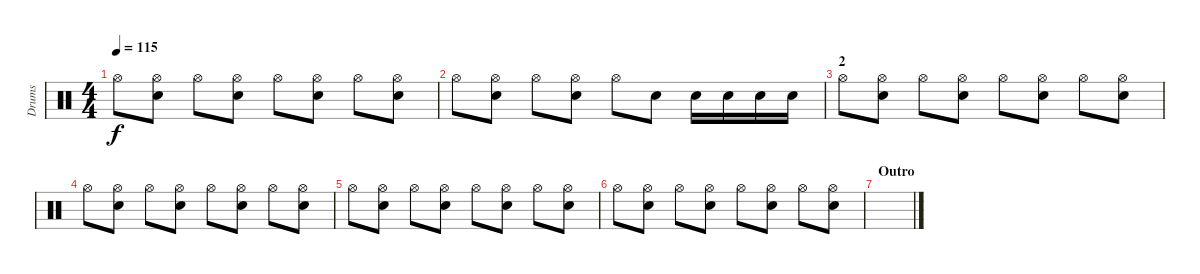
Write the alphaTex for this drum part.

\track ("Drums" "Drums") {instrument percussion}
\staff {score}
\articulation defaults
\ts (4 4)
\tempo 115
\clef neutral
\ks c "Hi-Hat (open)".8{dy f}
("Hi-Hat (open)" "Snare (hit) 2").8 "Hi-Hat (open)".8 ("Hi-Hat (open)" "Snare (hit) 2").8 "Hi-Hat (open)".8 ("Hi-Hat (open)" "Snare (hit) 2").8 "Hi-Hat (open)".8 ("Hi-Hat (open)" "Snare (hit) 2").8 |
"Hi-Hat (open)".8 ("Hi-Hat (open)" "Snare (hit) 2").8 "Hi-Hat (open)".8 ("Hi-Hat (open)" "Snare (hit) 2").8 "Hi-Hat (open)".8 "Snare (hit) 2".8 "Snare (hit) 2".16 "Snare (hit) 2".16 "Snare (hit) 2".16 "Snare (hit) 2".16 |
\section ("" "2")
"Hi-Hat (open)".8 ("Hi-Hat (open)" "Snare (hit) 2").8 "Hi-Hat (open)".8 ("Hi-Hat (open)" "Snare (hit) 2").8 "Hi-Hat (open)".8 ("Hi-Hat (open)" "Snare (hit) 2").8 "Hi-Hat (open)".8 ("Hi-Hat (open)" "Snare (hit) 2").8 |
"Hi-Hat (open)".8 ("Hi-Hat (open)" "Snare (hit) 2").8 "Hi-Hat (open)".8 ("Hi-Hat (open)" "Snare (hit) 2").8 "Hi-Hat (open)".8 ("Hi-Hat (open)" "Snare (hit) 2").8 "Hi-Hat (open)".8 ("Hi-Hat (open)" "Snare (hit) 2").8 |
"Hi-Hat (open)".8 ("Hi-Hat (open)" "Snare (hit) 2").8 "Hi-Hat (open)".8 ("Hi-Hat (open)" "Snare (hit) 2").8 "Hi-Hat (open)".8 ("Hi-Hat (open)" "Snare (hit) 2").8 "Hi-Hat (open)".8 ("Hi-Hat (open)" "Snare (hit) 2").8 |
"Hi-Hat (open)".8 ("Hi-Hat (open)" "Snare (hit) 2").8 "Hi-Hat (open)".8 ("Hi-Hat (open)" "Snare (hit) 2").8 "Hi-Hat (open)".8 ("Hi-Hat (open)" "Snare (hit) 2").8 "Hi-Hat (open)".8 ("Hi-Hat (open)" "Snare (hit) 2").8 |
\section ("" "Outro")
